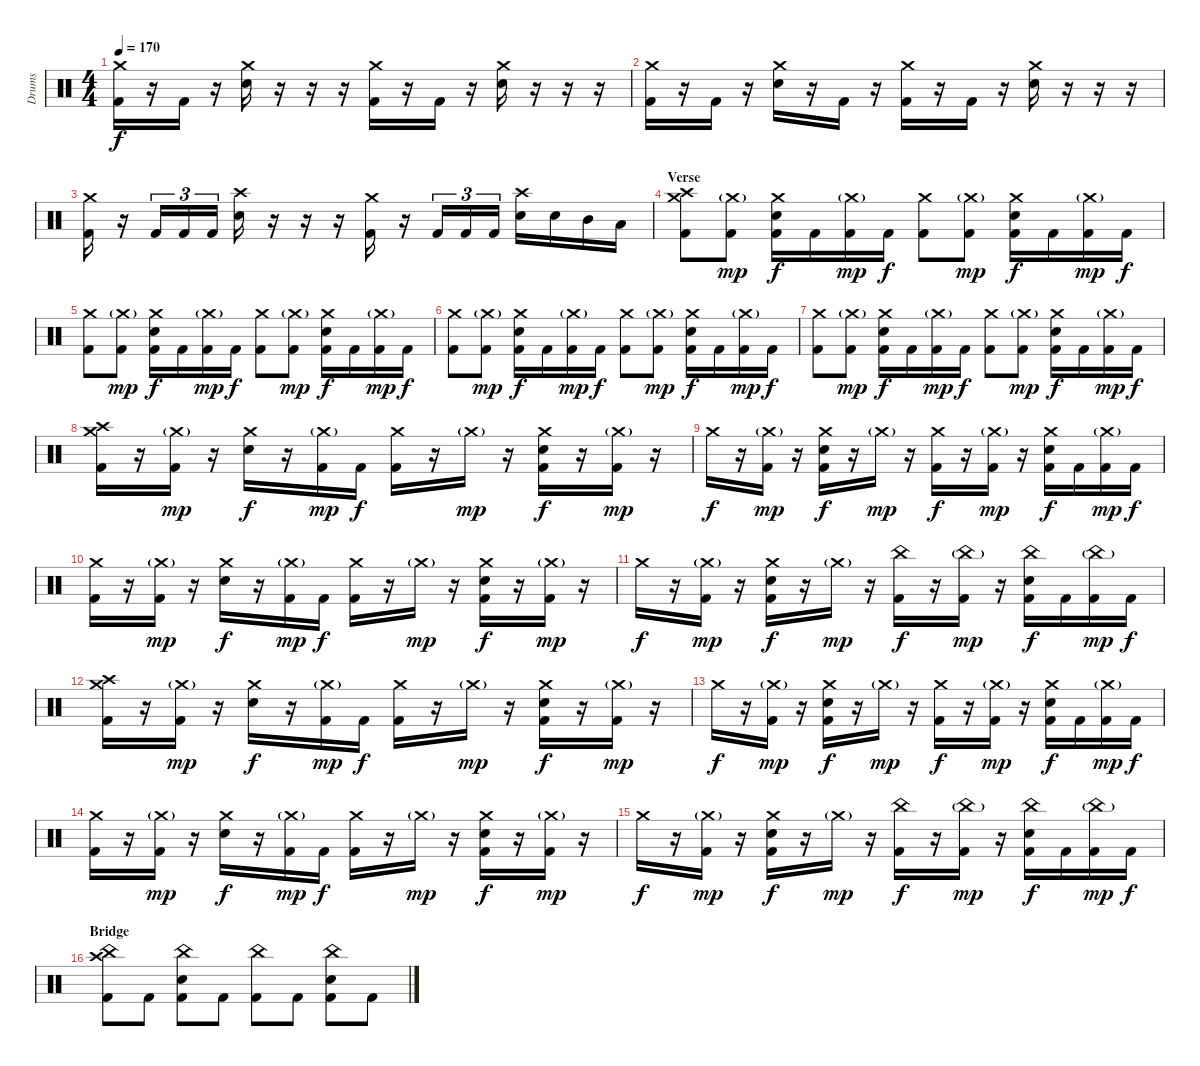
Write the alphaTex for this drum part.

\track ("Drums" "Drums") {instrument percussion}
\staff {score}
\articulation defaults
\ts (4 4)
\tempo 170
\clef neutral
\ks c
("Crash medium (hit)" "Kick (hit) 2").16{dy f} r.16 "Kick (hit) 2".16 r.16 ("Crash medium (hit)" "Electric Snare (hit)").16 r.16 r.16 r.16 ("Crash medium (hit)" "Kick (hit) 2").16 r.16 "Kick (hit) 2".16 r.16 ("Crash medium (hit)" "Electric Snare (hit)").16 r.16 r.16 r.16 |
("Crash medium (hit)" "Kick (hit) 2").16 r.16 "Kick (hit) 2".16 r.16 ("Crash medium (hit)" "Electric Snare (hit)").16 r.16 "Kick (hit) 2".16 r.16 ("Crash medium (hit)" "Kick (hit) 2").16 r.16 "Kick (hit) 2".16 r.16 ("Crash medium (hit)" "Electric Snare (hit)").16 r.16 r.16 r.16 |
("Crash medium (hit)" "Kick (hit) 2").16 r.16 "Kick (hit) 2".16{tu (3 2)} "Kick (hit) 2".16{tu (3 2)} "Kick (hit) 2".16{tu (3 2)} ("Crash high (hit)" "Electric Snare (hit)").16 r.16 r.16 r.16 ("Crash medium (hit)" "Kick (hit) 2").16 r.16 "Kick (hit) 2".16{tu (3 2)} "Kick (hit) 2".16{tu (3 2)} "Kick (hit) 2".16{tu (3 2)} ("Crash high (hit)" "Electric Snare (hit)").16 "Electric Snare (hit)".16 "Mid Tom (hit)".16 "Low Tom (hit)".16 |
\section ("" "Verse")
("Crash medium (hit)" "Crash high (hit)" "Kick (hit) 2").8 ("Crash medium (hit)"{g} "Kick (hit) 2").8{dy mp} ("Crash medium (hit)" "Electric Snare (hit)" "Kick (hit) 2").16{dy f} "Kick (hit) 2".16 ("Crash medium (hit)"{g} "Kick (hit) 2").16{dy mp} "Kick (hit) 2".16{dy f} ("Crash medium (hit)" "Kick (hit) 2").8 ("Crash medium (hit)"{g} "Kick (hit) 2").8{dy mp} ("Crash medium (hit)" "Electric Snare (hit)" "Kick (hit) 2").16{dy f} "Kick (hit) 2".16 ("Crash medium (hit)"{g} "Kick (hit) 2").16{dy mp} "Kick (hit) 2".16{dy f} |
("Crash medium (hit)" "Kick (hit) 2").8 ("Crash medium (hit)"{g} "Kick (hit) 2").8{dy mp} ("Crash medium (hit)" "Electric Snare (hit)" "Kick (hit) 2").16{dy f} "Kick (hit) 2".16 ("Crash medium (hit)"{g} "Kick (hit) 2").16{dy mp} "Kick (hit) 2".16{dy f} ("Crash medium (hit)" "Kick (hit) 2").8 ("Crash medium (hit)"{g} "Kick (hit) 2").8{dy mp} ("Crash medium (hit)" "Electric Snare (hit)" "Kick (hit) 2").16{dy f} "Kick (hit) 2".16 ("Crash medium (hit)"{g} "Kick (hit) 2").16{dy mp} "Kick (hit) 2".16{dy f} |
("Crash medium (hit)" "Kick (hit) 2").8 ("Crash medium (hit)"{g} "Kick (hit) 2").8{dy mp} ("Crash medium (hit)" "Electric Snare (hit)" "Kick (hit) 2").16{dy f} "Kick (hit) 2".16 ("Crash medium (hit)"{g} "Kick (hit) 2").16{dy mp} "Kick (hit) 2".16{dy f} ("Crash medium (hit)" "Kick (hit) 2").8 ("Crash medium (hit)"{g} "Kick (hit) 2").8{dy mp} ("Crash medium (hit)" "Electric Snare (hit)" "Kick (hit) 2").16{dy f} "Kick (hit) 2".16 ("Crash medium (hit)"{g} "Kick (hit) 2").16{dy mp} "Kick (hit) 2".16{dy f} |
("Crash medium (hit)" "Kick (hit) 2").8 ("Crash medium (hit)"{g} "Kick (hit) 2").8{dy mp} ("Crash medium (hit)" "Electric Snare (hit)" "Kick (hit) 2").16{dy f} "Kick (hit) 2".16 ("Crash medium (hit)"{g} "Kick (hit) 2").16{dy mp} "Kick (hit) 2".16{dy f} ("Crash medium (hit)" "Kick (hit) 2").8 ("Crash medium (hit)"{g} "Kick (hit) 2").8{dy mp} ("Crash medium (hit)" "Electric Snare (hit)" "Kick (hit) 2").16{dy f} "Kick (hit) 2".16 ("Crash medium (hit)"{g} "Kick (hit) 2").16{dy mp} "Kick (hit) 2".16{dy f} |
("Crash medium (hit)" "Crash high (hit)" "Kick (hit) 2").16 r.16 ("Crash medium (hit)"{g} "Kick (hit) 2").16{dy mp} r.16 ("Crash medium (hit)" "Electric Snare (hit)").16{dy f} r.16 ("Crash medium (hit)"{g} "Kick (hit) 2").16{dy mp} "Kick (hit) 2".16{dy f} ("Crash medium (hit)" "Kick (hit) 2").16 r.16 "Crash medium (hit)"{g}.16{dy mp} r.16 ("Crash medium (hit)" "Electric Snare (hit)" "Kick (hit) 2").16{dy f} r.16 ("Crash medium (hit)"{g} "Kick (hit) 2").16{dy mp} r.16 |
"Crash medium (hit)".16{dy f} r.16 ("Crash medium (hit)"{g} "Kick (hit) 2").16{dy mp} r.16 ("Crash medium (hit)" "Electric Snare (hit)" "Kick (hit) 2").16{dy f} r.16 "Crash medium (hit)"{g}.16{dy mp} r.16 ("Crash medium (hit)" "Kick (hit) 2").16{dy f} r.16 ("Crash medium (hit)"{g} "Kick (hit) 2").16{dy mp} r.16 ("Crash medium (hit)" "Electric Snare (hit)" "Kick (hit) 2").16{dy f} "Kick (hit) 2".16 ("Crash medium (hit)"{g} "Kick (hit) 2").16{dy mp} "Kick (hit) 2".16{dy f} |
("Crash medium (hit)" "Kick (hit) 2").16 r.16 ("Crash medium (hit)"{g} "Kick (hit) 2").16{dy mp} r.16 ("Crash medium (hit)" "Electric Snare (hit)").16{dy f} r.16 ("Crash medium (hit)"{g} "Kick (hit) 2").16{dy mp} "Kick (hit) 2".16{dy f} ("Crash medium (hit)" "Kick (hit) 2").16 r.16 "Crash medium (hit)"{g}.16{dy mp} r.16 ("Crash medium (hit)" "Electric Snare (hit)" "Kick (hit) 2").16{dy f} r.16 ("Crash medium (hit)"{g} "Kick (hit) 2").16{dy mp} r.16 |
"Crash medium (hit)".16{dy f} r.16 ("Crash medium (hit)"{g} "Kick (hit) 2").16{dy mp} r.16 ("Crash medium (hit)" "Electric Snare (hit)" "Kick (hit) 2").16{dy f} r.16 "Crash medium (hit)"{g}.16{dy mp} r.16 ("China (hit)" "Kick (hit) 2").16{dy f} r.16 ("China (hit)"{g} "Kick (hit) 2").16{dy mp} r.16 ("China (hit)" "Electric Snare (hit)" "Kick (hit) 2").16{dy f} "Kick (hit) 2".16 ("China (hit)"{g} "Kick (hit) 2").16{dy mp} "Kick (hit) 2".16{dy f} |
("Crash medium (hit)" "Crash high (hit)" "Kick (hit) 2").16 r.16 ("Crash medium (hit)"{g} "Kick (hit) 2").16{dy mp} r.16 ("Crash medium (hit)" "Electric Snare (hit)").16{dy f} r.16 ("Crash medium (hit)"{g} "Kick (hit) 2").16{dy mp} "Kick (hit) 2".16{dy f} ("Crash medium (hit)" "Kick (hit) 2").16 r.16 "Crash medium (hit)"{g}.16{dy mp} r.16 ("Crash medium (hit)" "Electric Snare (hit)" "Kick (hit) 2").16{dy f} r.16 ("Crash medium (hit)"{g} "Kick (hit) 2").16{dy mp} r.16 |
"Crash medium (hit)".16{dy f} r.16 ("Crash medium (hit)"{g} "Kick (hit) 2").16{dy mp} r.16 ("Crash medium (hit)" "Electric Snare (hit)" "Kick (hit) 2").16{dy f} r.16 "Crash medium (hit)"{g}.16{dy mp} r.16 ("Crash medium (hit)" "Kick (hit) 2").16{dy f} r.16 ("Crash medium (hit)"{g} "Kick (hit) 2").16{dy mp} r.16 ("Crash medium (hit)" "Electric Snare (hit)" "Kick (hit) 2").16{dy f} "Kick (hit) 2".16 ("Crash medium (hit)"{g} "Kick (hit) 2").16{dy mp} "Kick (hit) 2".16{dy f} |
("Crash medium (hit)" "Kick (hit) 2").16 r.16 ("Crash medium (hit)"{g} "Kick (hit) 2").16{dy mp} r.16 ("Crash medium (hit)" "Electric Snare (hit)").16{dy f} r.16 ("Crash medium (hit)"{g} "Kick (hit) 2").16{dy mp} "Kick (hit) 2".16{dy f} ("Crash medium (hit)" "Kick (hit) 2").16 r.16 "Crash medium (hit)"{g}.16{dy mp} r.16 ("Crash medium (hit)" "Electric Snare (hit)" "Kick (hit) 2").16{dy f} r.16 ("Crash medium (hit)"{g} "Kick (hit) 2").16{dy mp} r.16 |
"Crash medium (hit)".16{dy f} r.16 ("Crash medium (hit)"{g} "Kick (hit) 2").16{dy mp} r.16 ("Crash medium (hit)" "Electric Snare (hit)" "Kick (hit) 2").16{dy f} r.16 "Crash medium (hit)"{g}.16{dy mp} r.16 ("China (hit)" "Kick (hit) 2").16{dy f} r.16 ("China (hit)"{g} "Kick (hit) 2").16{dy mp} r.16 ("China (hit)" "Electric Snare (hit)" "Kick (hit) 2").16{dy f} "Kick (hit) 2".16 ("China (hit)"{g} "Kick (hit) 2").16{dy mp} "Kick (hit) 2".16{dy f} |
\section ("" "Bridge")
("China (hit)" "Crash high (hit)" "Kick (hit) 2").8 "Kick (hit) 2".8 ("China (hit)" "Electric Snare (hit)" "Kick (hit) 2").8 "Kick (hit) 2".8 ("China (hit)" "Kick (hit) 2").8 "Kick (hit) 2".8 ("China (hit)" "Electric Snare (hit)" "Kick (hit) 2").8 "Kick (hit) 2".8
